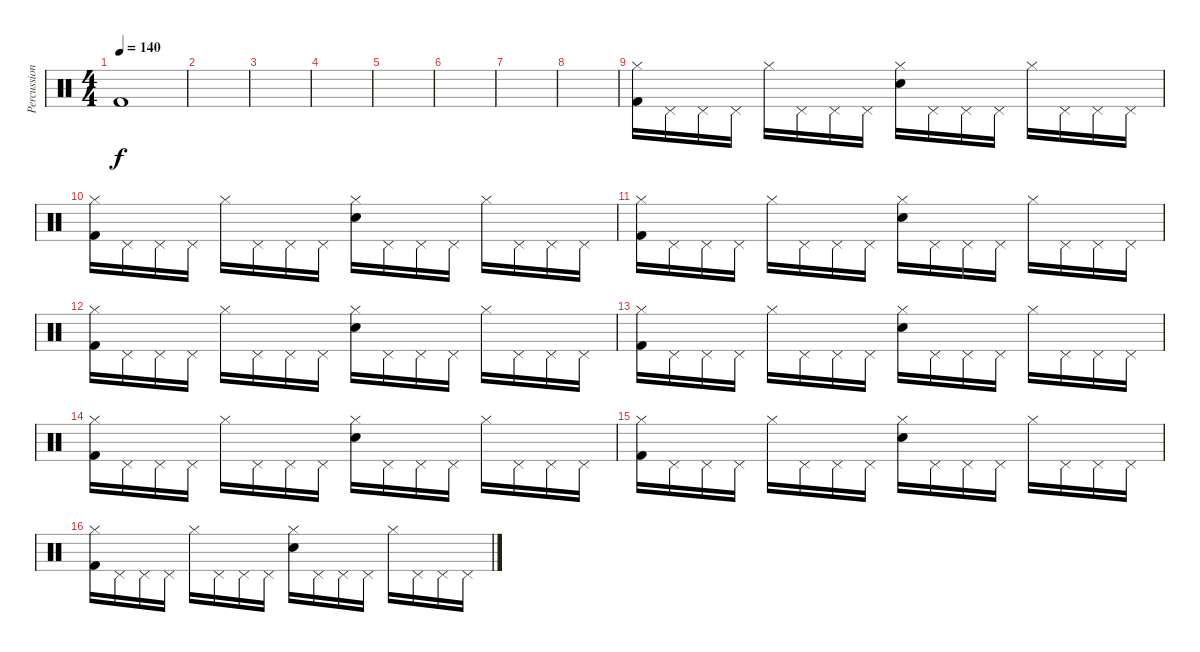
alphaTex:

\track ("Percussion" "Percussion") {instrument percussion}
\staff {score}
\articulation defaults
\ts (4 4)
\tempo 140
\clef neutral
\ks c "Kick (hit) 2".1{dy f}
|
|
|
|
|
|
|
|
("Hi-Hat (closed)" "Kick (hit) 2").16 "Pedal Hi-Hat (hit)".16 "Pedal Hi-Hat (hit)".16 "Pedal Hi-Hat (hit)".16 "Hi-Hat (closed)".16 "Pedal Hi-Hat (hit)".16 "Pedal Hi-Hat (hit)".16 "Pedal Hi-Hat (hit)".16 ("Hi-Hat (closed)" "Snare (hit) 2").16 "Pedal Hi-Hat (hit)".16 "Pedal Hi-Hat (hit)".16 "Pedal Hi-Hat (hit)".16 "Hi-Hat (closed)".16 "Pedal Hi-Hat (hit)".16 "Pedal Hi-Hat (hit)".16 "Pedal Hi-Hat (hit)".16 |
("Hi-Hat (closed)" "Kick (hit) 2").16 "Pedal Hi-Hat (hit)".16 "Pedal Hi-Hat (hit)".16 "Pedal Hi-Hat (hit)".16 "Hi-Hat (closed)".16 "Pedal Hi-Hat (hit)".16 "Pedal Hi-Hat (hit)".16 "Pedal Hi-Hat (hit)".16 ("Hi-Hat (closed)" "Snare (hit) 2").16 "Pedal Hi-Hat (hit)".16 "Pedal Hi-Hat (hit)".16 "Pedal Hi-Hat (hit)".16 "Hi-Hat (closed)".16 "Pedal Hi-Hat (hit)".16 "Pedal Hi-Hat (hit)".16 "Pedal Hi-Hat (hit)".16 |
("Hi-Hat (closed)" "Kick (hit) 2").16 "Pedal Hi-Hat (hit)".16 "Pedal Hi-Hat (hit)".16 "Pedal Hi-Hat (hit)".16 "Hi-Hat (closed)".16 "Pedal Hi-Hat (hit)".16 "Pedal Hi-Hat (hit)".16 "Pedal Hi-Hat (hit)".16 ("Hi-Hat (closed)" "Snare (hit) 2").16 "Pedal Hi-Hat (hit)".16 "Pedal Hi-Hat (hit)".16 "Pedal Hi-Hat (hit)".16 "Hi-Hat (closed)".16 "Pedal Hi-Hat (hit)".16 "Pedal Hi-Hat (hit)".16 "Pedal Hi-Hat (hit)".16 |
("Hi-Hat (closed)" "Kick (hit) 2").16 "Pedal Hi-Hat (hit)".16 "Pedal Hi-Hat (hit)".16 "Pedal Hi-Hat (hit)".16 "Hi-Hat (closed)".16 "Pedal Hi-Hat (hit)".16 "Pedal Hi-Hat (hit)".16 "Pedal Hi-Hat (hit)".16 ("Hi-Hat (closed)" "Snare (hit) 2").16 "Pedal Hi-Hat (hit)".16 "Pedal Hi-Hat (hit)".16 "Pedal Hi-Hat (hit)".16 "Hi-Hat (closed)".16 "Pedal Hi-Hat (hit)".16 "Pedal Hi-Hat (hit)".16 "Pedal Hi-Hat (hit)".16 |
("Hi-Hat (closed)" "Kick (hit) 2").16 "Pedal Hi-Hat (hit)".16 "Pedal Hi-Hat (hit)".16 "Pedal Hi-Hat (hit)".16 "Hi-Hat (closed)".16 "Pedal Hi-Hat (hit)".16 "Pedal Hi-Hat (hit)".16 "Pedal Hi-Hat (hit)".16 ("Hi-Hat (closed)" "Snare (hit) 2").16 "Pedal Hi-Hat (hit)".16 "Pedal Hi-Hat (hit)".16 "Pedal Hi-Hat (hit)".16 "Hi-Hat (closed)".16 "Pedal Hi-Hat (hit)".16 "Pedal Hi-Hat (hit)".16 "Pedal Hi-Hat (hit)".16 |
("Hi-Hat (closed)" "Kick (hit) 2").16 "Pedal Hi-Hat (hit)".16 "Pedal Hi-Hat (hit)".16 "Pedal Hi-Hat (hit)".16 "Hi-Hat (closed)".16 "Pedal Hi-Hat (hit)".16 "Pedal Hi-Hat (hit)".16 "Pedal Hi-Hat (hit)".16 ("Hi-Hat (closed)" "Snare (hit) 2").16 "Pedal Hi-Hat (hit)".16 "Pedal Hi-Hat (hit)".16 "Pedal Hi-Hat (hit)".16 "Hi-Hat (closed)".16 "Pedal Hi-Hat (hit)".16 "Pedal Hi-Hat (hit)".16 "Pedal Hi-Hat (hit)".16 |
("Hi-Hat (closed)" "Kick (hit) 2").16 "Pedal Hi-Hat (hit)".16 "Pedal Hi-Hat (hit)".16 "Pedal Hi-Hat (hit)".16 "Hi-Hat (closed)".16 "Pedal Hi-Hat (hit)".16 "Pedal Hi-Hat (hit)".16 "Pedal Hi-Hat (hit)".16 ("Hi-Hat (closed)" "Snare (hit) 2").16 "Pedal Hi-Hat (hit)".16 "Pedal Hi-Hat (hit)".16 "Pedal Hi-Hat (hit)".16 "Hi-Hat (closed)".16 "Pedal Hi-Hat (hit)".16 "Pedal Hi-Hat (hit)".16 "Pedal Hi-Hat (hit)".16 |
("Hi-Hat (closed)" "Kick (hit) 2").16 "Pedal Hi-Hat (hit)".16 "Pedal Hi-Hat (hit)".16 "Pedal Hi-Hat (hit)".16 "Hi-Hat (closed)".16 "Pedal Hi-Hat (hit)".16 "Pedal Hi-Hat (hit)".16 "Pedal Hi-Hat (hit)".16 ("Hi-Hat (closed)" "Snare (hit) 2").16 "Pedal Hi-Hat (hit)".16 "Pedal Hi-Hat (hit)".16 "Pedal Hi-Hat (hit)".16 "Hi-Hat (closed)".16 "Pedal Hi-Hat (hit)".16 "Pedal Hi-Hat (hit)".16 "Pedal Hi-Hat (hit)".16
